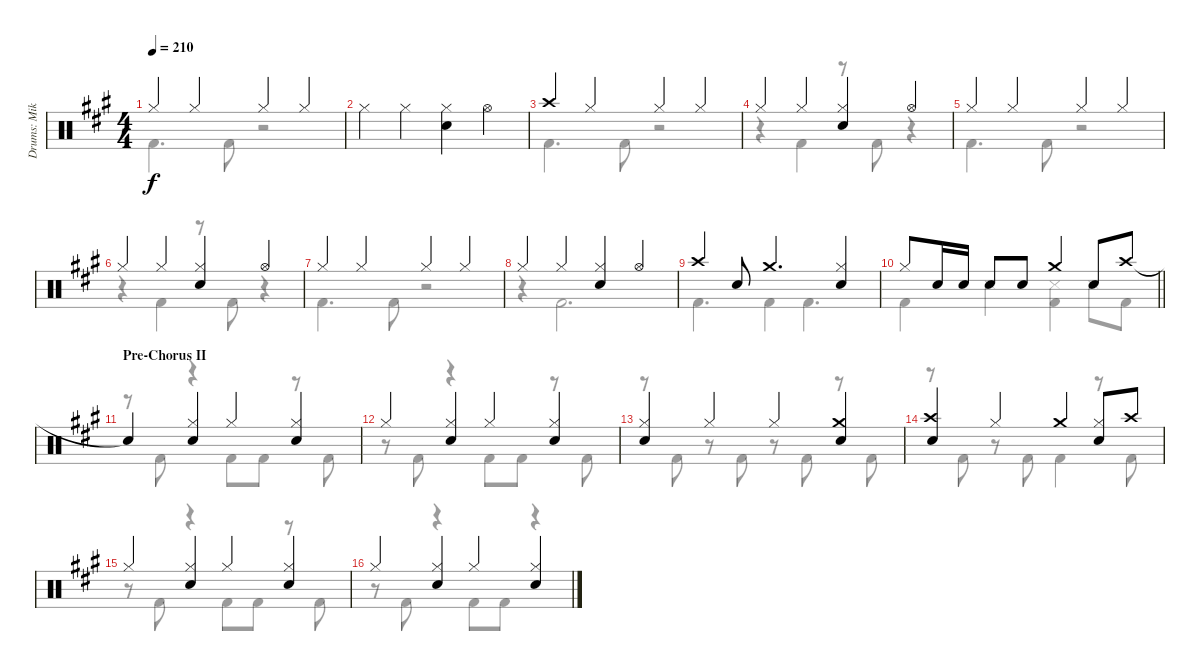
\track ("Drums: Mikkey" "Drums: Mik") {instrument percussion}
\staff {score}
\articulation defaults
\voice
\ts (4 4)
\tempo 210
\clef neutral
\ks a "Hi-Hat (closed)".4{dy f} "Hi-Hat (closed)".4 "Hi-Hat (closed)".4 "Hi-Hat (closed)".4
|
"Hi-Hat (closed)".4 "Hi-Hat (closed)".4 ("Hi-Hat (closed)" "Snare (hit) 2").4 "Hi-Hat (open)".4 |
"Crash high (hit)".4 "Hi-Hat (closed)".4 "Hi-Hat (closed)".4 "Hi-Hat (closed)".4 |
"Hi-Hat (closed)".4 "Hi-Hat (closed)".4 ("Hi-Hat (closed)" "Snare (hit) 2").4 "Hi-Hat (open)".4 |
"Hi-Hat (closed)".4 "Hi-Hat (closed)".4 "Hi-Hat (closed)".4 "Hi-Hat (closed)".4 |
"Hi-Hat (closed)".4 "Hi-Hat (closed)".4 ("Hi-Hat (closed)" "Snare (hit) 2").4 "Hi-Hat (open)".4 |
"Hi-Hat (closed)".4 "Hi-Hat (closed)".4 "Hi-Hat (closed)".4 "Hi-Hat (closed)".4 |
"Hi-Hat (closed)".4 "Hi-Hat (closed)".4 ("Hi-Hat (closed)" "Snare (hit) 2").4 "Hi-Hat (open)".4 |
"Crash high (hit)".4 "Snare (hit) 2".8 "Crash medium (hit)".4{d} ("Hi-Hat (closed)" "Snare (hit) 2").4 |
\barLineRight lightlight "Hi-Hat (closed)".8 "Snare (hit) 2".16 "Snare (hit) 2".16 "Snare (hit) 2".8 "Snare (hit) 2".8 "Crash medium (hit)".4 "Snare (hit) 2".8 "Crash high (hit)".8
|
\section ("" "Pre-Chorus II")
"Snare (hit)"{t}.4 ("Hi-Hat (closed)" "Snare (hit) 2").4 "Hi-Hat (closed)".4 ("Hi-Hat (closed)" "Snare (hit) 2").4 |
"Hi-Hat (closed)".4 ("Hi-Hat (closed)" "Snare (hit) 2").4 "Hi-Hat (closed)".4 ("Hi-Hat (closed)" "Snare (hit) 2").4 |
("Hi-Hat (closed)" "Snare (hit) 2").4 "Hi-Hat (closed)".4 "Hi-Hat (closed)".4 ("Crash medium (hit)" "Snare (hit) 2").4 |
("Crash high (hit)" "Snare (hit) 2").4 "Hi-Hat (closed)".4 "Crash medium (hit)".4 ("Hi-Hat (closed)" "Snare (hit) 2").8 "Crash high (hit)".8 |
"Hi-Hat (closed)".4 ("Hi-Hat (closed)" "Snare (hit) 2").4 "Hi-Hat (closed)".4 ("Hi-Hat (closed)" "Snare (hit) 2").4 |
"Hi-Hat (closed)".4 ("Hi-Hat (closed)" "Snare (hit) 2").4 "Hi-Hat (closed)".4 ("Hi-Hat (closed)" "Snare (hit) 2").4
\voice
\clef neutral
\ottava regular
\simile none
\ks a "Kick (hit) 2".4{d dy f} "Kick (hit) 2".8
r.2 |
|
"Kick (hit) 2".4{d} "Kick (hit) 2".8 r.2 |
r.4 "Kick (hit) 2".4 r.8 "Kick (hit) 2".8 r.4 |
"Kick (hit) 2".4{d} "Kick (hit) 2".8 r.2 |
r.4 "Kick (hit) 2".4 r.8 "Kick (hit) 2".8 r.4 |
"Kick (hit) 2".4{d} "Kick (hit) 2".8 r.2 |
r.4 "Kick (hit) 2".2{d} |
"Kick (hit) 2".4{d} "Kick (hit) 2".4 "Kick (hit) 2".4{d} |
\barLineRight lightlight "Kick (hit) 2".4 "Snare (side stick) 3".4
("Kick (hit) 2" "Snare (side stick) 3").4 "Snare (side stick) 3".8 "Kick (hit) 2".8 |
r.8 "Kick (hit) 2".8 r.4 "Kick (hit) 2".8 "Kick (hit) 2".8 r.8 "Kick (hit) 2".8 |
r.8 "Kick (hit) 2".8 r.4 "Kick (hit) 2".8 "Kick (hit) 2".8 r.8 "Kick (hit) 2".8 |
r.8 "Kick (hit) 2".8 r.8 "Kick (hit) 2".8 r.8 "Kick (hit) 2".8 r.8 "Kick (hit) 2".8 |
r.8 "Kick (hit) 2".8 r.8 "Kick (hit) 2".8 "Kick (hit) 2".4 r.8 "Kick (hit) 2".8 |
r.8 "Kick (hit) 2".8 r.4 "Kick (hit) 2".8 "Kick (hit) 2".8 r.8 "Kick (hit) 2".8 |
r.8 "Kick (hit) 2".8 r.4 "Kick (hit) 2".8 "Kick (hit) 2".8 r.4
